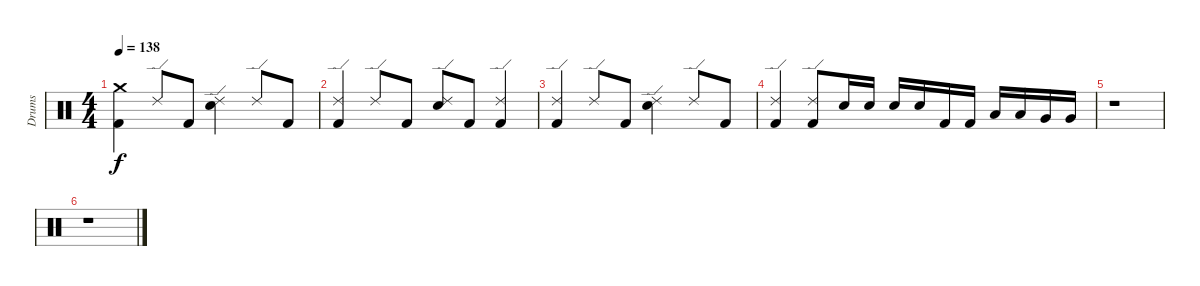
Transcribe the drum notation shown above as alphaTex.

\track ("Drums" "Drums") {instrument percussion}
\staff {score}
\articulation defaults
\ts (4 4)
\tempo 138
\clef neutral
\ks c
("Kick (hit) 2" "Crash medium (hit)").4{dy f volume 4} "Ride (edge) 2".8{volume 4} "Kick (hit) 2".8{volume 4} ("Ride (edge) 2" "Electric Snare (hit)").4{volume 4} "Ride (edge) 2".8{volume 3} "Kick (hit) 2".8{volume 3} |
("Ride (edge) 2" "Kick (hit) 2").4{volume 3} "Ride (edge) 2".8{volume 3} "Kick (hit) 2".8{volume 3} ("Ride (edge) 2" "Electric Snare (hit)").8{volume 2} "Kick (hit) 2".8{volume 2} ("Ride (edge) 2" "Kick (hit) 2").4{volume 2} |
("Ride (edge) 2" "Kick (hit) 2").4{volume 2} "Ride (edge) 2".8{volume 2} "Kick (hit) 2".8{volume 2} ("Ride (edge) 2" "Electric Snare (hit)").4{volume 2} "Ride (edge) 2".8{volume 1} "Kick (hit) 2".8{volume 1} |
("Ride (edge) 2" "Kick (hit) 2").4{volume 1} ("Ride (edge) 2" "Kick (hit) 2").8{volume 1} "Electric Snare (hit)".16{volume 1} "Electric Snare (hit)".16 "Electric Snare (hit)".16{volume 0} "Electric Snare (hit)".16 "Kick (hit) 2".16{volume 0} "Kick (hit) 2".16 "Low Tom (hit)".16{volume 0} "Low Tom (hit)".16 "Very Low Tom (hit)".16{volume 0} "Very Low Tom (hit)".16 |
r.1 |
r.1
